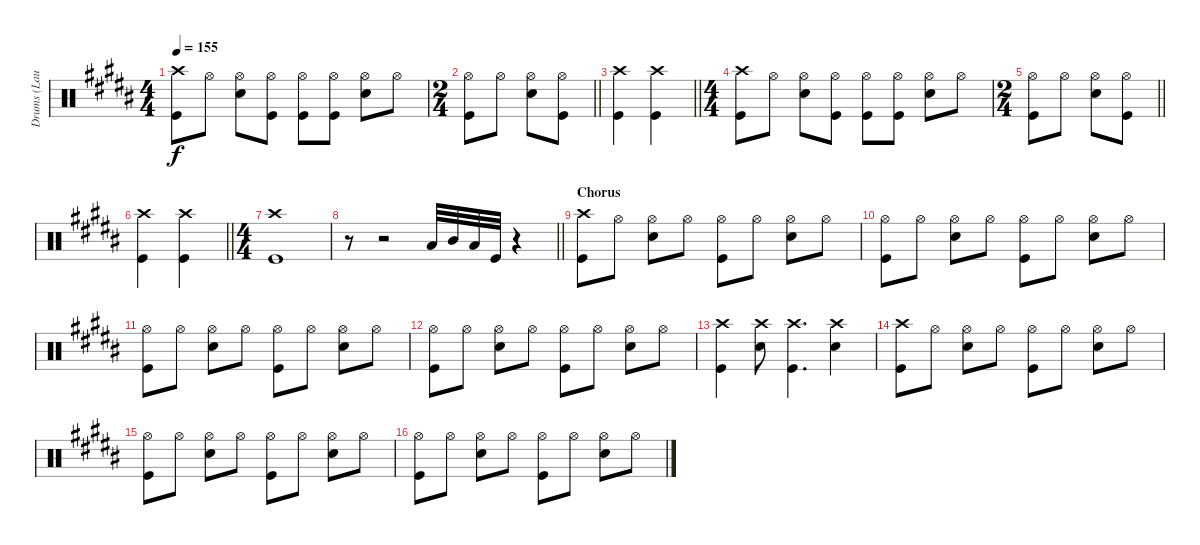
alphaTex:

\track ("Drums (Laust Sonne)" "Drums (Lau") {instrument percussion}
\staff {score}
\articulation defaults
\ts (4 4)
\tempo 155
\clef neutral
\ks b
("Kick (hit)" "Crash high (hit)").8{dy f} "Hi-Hat (open)".8 ("Hi-Hat (open)" "Snare (hit) 2").8 ("Hi-Hat (open)" "Kick (hit)").8 ("Hi-Hat (open)" "Kick (hit)").8 ("Hi-Hat (open)" "Kick (hit)").8 ("Hi-Hat (open)" "Snare (hit) 2").8 "Hi-Hat (open)".8 |
\ts (2 4)
\barLineRight lightlight
("Kick (hit)" "Hi-Hat (open)").8 "Hi-Hat (open)".8 ("Hi-Hat (open)" "Snare (hit) 2").8 ("Hi-Hat (open)" "Kick (hit)").8 |
\barLineRight lightlight
("Crash high (hit)" "Kick (hit)").4 ("Crash high (hit)" "Kick (hit)").4 |
\ts (4 4)
("Kick (hit)" "Crash high (hit)").8 "Hi-Hat (open)".8 ("Hi-Hat (open)" "Snare (hit) 2").8 ("Hi-Hat (open)" "Kick (hit)").8 ("Hi-Hat (open)" "Kick (hit)").8 ("Hi-Hat (open)" "Kick (hit)").8 ("Hi-Hat (open)" "Snare (hit) 2").8 "Hi-Hat (open)".8 |
\ts (2 4)
\barLineRight lightlight
("Kick (hit)" "Hi-Hat (open)").8 "Hi-Hat (open)".8 ("Hi-Hat (open)" "Snare (hit) 2").8 ("Hi-Hat (open)" "Kick (hit)").8 |
\barLineRight lightlight
("Crash high (hit)" "Kick (hit)").4 ("Crash high (hit)" "Kick (hit)").4 |
\ts (4 4)
("Kick (hit)" "Crash high (hit)").1 |
\barLineRight lightlight
r.8 r.2 "Low Tom (hit)".32 "Mid Tom (hit)".32 "Low Floor Tom (hit)".32 "Kick (hit)".32 r.4 |
\section ("" "Chorus")
("Crash high (hit)" "Kick (hit)").8 "Hi-Hat (open)".8 ("Hi-Hat (open)" "Snare (hit) 2").8 "Hi-Hat (open)".8 ("Hi-Hat (open)" "Kick (hit)").8 "Hi-Hat (open)".8 ("Hi-Hat (open)" "Snare (hit) 2").8 "Hi-Hat (open)".8 |
("Hi-Hat (open)" "Kick (hit)").8 "Hi-Hat (open)".8 ("Hi-Hat (open)" "Snare (hit) 2").8 "Hi-Hat (open)".8 ("Hi-Hat (open)" "Kick (hit)").8 "Hi-Hat (open)".8 ("Hi-Hat (open)" "Snare (hit) 2").8 "Hi-Hat (open)".8 |
("Hi-Hat (open)" "Kick (hit)").8 "Hi-Hat (open)".8 ("Hi-Hat (open)" "Snare (hit) 2").8 "Hi-Hat (open)".8 ("Hi-Hat (open)" "Kick (hit)").8 "Hi-Hat (open)".8 ("Hi-Hat (open)" "Snare (hit) 2").8 "Hi-Hat (open)".8 |
("Hi-Hat (open)" "Kick (hit)").8 "Hi-Hat (open)".8 ("Hi-Hat (open)" "Snare (hit) 2").8 "Hi-Hat (open)".8 ("Hi-Hat (open)" "Kick (hit)").8 "Hi-Hat (open)".8 ("Hi-Hat (open)" "Snare (hit) 2").8 "Hi-Hat (open)".8 |
("Crash high (hit)" "Kick (hit)").4 ("Crash high (hit)" "Snare (hit) 2").8 ("Crash high (hit)" "Kick (hit)").4{d} ("Crash high (hit)" "Snare (hit) 2").4 |
("Crash high (hit)" "Kick (hit)").8 "Hi-Hat (open)".8 ("Hi-Hat (open)" "Snare (hit) 2").8 "Hi-Hat (open)".8 ("Hi-Hat (open)" "Kick (hit)").8 "Hi-Hat (open)".8 ("Hi-Hat (open)" "Snare (hit) 2").8 "Hi-Hat (open)".8 |
("Hi-Hat (open)" "Kick (hit)").8 "Hi-Hat (open)".8 ("Hi-Hat (open)" "Snare (hit) 2").8 "Hi-Hat (open)".8 ("Hi-Hat (open)" "Kick (hit)").8 "Hi-Hat (open)".8 ("Hi-Hat (open)" "Snare (hit) 2").8 "Hi-Hat (open)".8 |
("Hi-Hat (open)" "Kick (hit)").8 "Hi-Hat (open)".8 ("Hi-Hat (open)" "Snare (hit) 2").8 "Hi-Hat (open)".8 ("Hi-Hat (open)" "Kick (hit)").8 "Hi-Hat (open)".8 ("Hi-Hat (open)" "Snare (hit) 2").8 "Hi-Hat (open)".8
